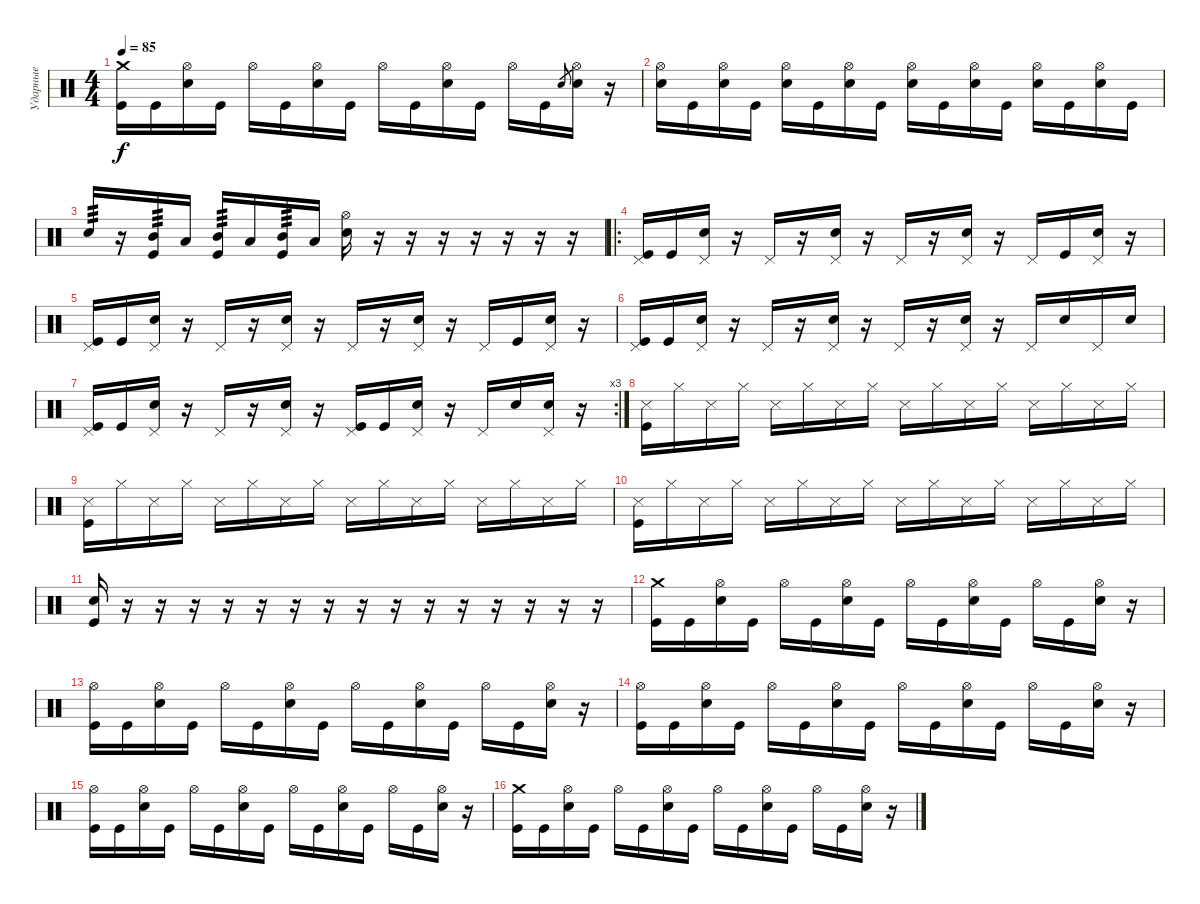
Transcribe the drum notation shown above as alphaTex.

\track ("Ударные" "Ударные") {instrument percussion}
\staff {score}
\articulation defaults
\ts (4 4)
\tempo 85
\clef neutral
\ks c
("Crash medium (hit)" "Kick (hit)").16{dy f} "Kick (hit)".16 ("Hi-Hat (open)" "Electric Snare (hit)").16 "Kick (hit)".16 "Hi-Hat (open)".16 "Kick (hit)".16 ("Hi-Hat (open)" "Electric Snare (hit)").16 "Kick (hit)".16 "Hi-Hat (open)".16 "Kick (hit)".16 ("Hi-Hat (open)" "Electric Snare (hit)").16 "Kick (hit)".16 "Hi-Hat (open)".16 "Kick (hit)".16 "Electric Snare (hit)".8{gr} ("Hi-Hat (open)" "Electric Snare (hit)").16 r.16 |
("Hi-Hat (open)" "Electric Snare (hit)").16 "Kick (hit)".16 ("Hi-Hat (open)" "Electric Snare (hit)").16 "Kick (hit)".16 ("Hi-Hat (open)" "Electric Snare (hit)").16 "Kick (hit)".16 ("Hi-Hat (open)" "Electric Snare (hit)").16 "Kick (hit)".16 ("Hi-Hat (open)" "Electric Snare (hit)").16 "Kick (hit)".16 ("Hi-Hat (open)" "Electric Snare (hit)").16 "Kick (hit)".16 ("Hi-Hat (open)" "Electric Snare (hit)").16 "Kick (hit)".16 ("Hi-Hat (open)" "Electric Snare (hit)").16 "Kick (hit)".16 |
"Electric Snare (hit)".16{tp 3} r.16 ("Kick (hit)" "Mid Tom (hit)").16{tp 3} "Low Tom (hit)".16 ("Kick (hit)" "Mid Tom (hit)").16{tp 3} "Low Tom (hit)".16 ("Kick (hit)" "Mid Tom (hit)").16{tp 3} "Low Tom (hit)".16 ("Hi-Hat (open)" "Electric Snare (hit)").16 r.16 r.16 r.16 r.16 r.16 r.16 r.16 |
\ro
("Pedal Hi-Hat (hit)" "Kick (hit)").16 "Kick (hit)".16 ("Pedal Hi-Hat (hit)" "Electric Snare (hit)").16 r.16 "Pedal Hi-Hat (hit)".16 r.16 ("Pedal Hi-Hat (hit)" "Electric Snare (hit)").16 r.16 "Pedal Hi-Hat (hit)".16 r.16 ("Pedal Hi-Hat (hit)" "Electric Snare (hit)").16 r.16 "Pedal Hi-Hat (hit)".16 "Kick (hit)".16 ("Pedal Hi-Hat (hit)" "Electric Snare (hit)").16 r.16 |
("Pedal Hi-Hat (hit)" "Kick (hit)").16 "Kick (hit)".16 ("Pedal Hi-Hat (hit)" "Electric Snare (hit)").16 r.16 "Pedal Hi-Hat (hit)".16 r.16 ("Pedal Hi-Hat (hit)" "Electric Snare (hit)").16 r.16 "Pedal Hi-Hat (hit)".16 r.16 ("Pedal Hi-Hat (hit)" "Electric Snare (hit)").16 r.16 "Pedal Hi-Hat (hit)".16 "Kick (hit)".16 ("Pedal Hi-Hat (hit)" "Electric Snare (hit)").16 r.16 |
("Pedal Hi-Hat (hit)" "Kick (hit)").16 "Kick (hit)".16 ("Pedal Hi-Hat (hit)" "Electric Snare (hit)").16 r.16 "Pedal Hi-Hat (hit)".16 r.16 ("Pedal Hi-Hat (hit)" "Electric Snare (hit)").16 r.16 "Pedal Hi-Hat (hit)".16 r.16 ("Pedal Hi-Hat (hit)" "Electric Snare (hit)").16 r.16 "Pedal Hi-Hat (hit)".16 "Electric Snare (hit)".16 "Pedal Hi-Hat (hit)".16 "Electric Snare (hit)".16 |
\rc 3
("Pedal Hi-Hat (hit)" "Kick (hit)").16 "Kick (hit)".16 ("Pedal Hi-Hat (hit)" "Electric Snare (hit)").16 r.16 "Pedal Hi-Hat (hit)".16 r.16 ("Pedal Hi-Hat (hit)" "Electric Snare (hit)").16 r.16 ("Pedal Hi-Hat (hit)" "Kick (hit)").16 "Kick (hit)".16 ("Pedal Hi-Hat (hit)" "Electric Snare (hit)").16 r.16 "Pedal Hi-Hat (hit)".16 "Electric Snare (hit)".16 ("Pedal Hi-Hat (hit)" "Electric Snare (hit)").16 r.16 |
("Snare (side stick) 3" "Kick (hit)").16 "Hi-Hat (closed)".16 "Snare (side stick) 3".16 "Hi-Hat (closed)".16 "Snare (side stick) 3".16 "Hi-Hat (closed)".16 "Snare (side stick) 3".16 "Hi-Hat (closed)".16 "Snare (side stick) 3".16 "Hi-Hat (closed)".16 "Snare (side stick) 3".16 "Hi-Hat (closed)".16 "Snare (side stick) 3".16 "Hi-Hat (closed)".16 "Snare (side stick) 3".16 "Hi-Hat (closed)".16 |
("Snare (side stick) 3" "Kick (hit)").16 "Hi-Hat (closed)".16 "Snare (side stick) 3".16 "Hi-Hat (closed)".16 "Snare (side stick) 3".16 "Hi-Hat (closed)".16 "Snare (side stick) 3".16 "Hi-Hat (closed)".16 "Snare (side stick) 3".16 "Hi-Hat (closed)".16 "Snare (side stick) 3".16 "Hi-Hat (closed)".16 "Snare (side stick) 3".16 "Hi-Hat (closed)".16 "Snare (side stick) 3".16 "Hi-Hat (closed)".16 |
("Snare (side stick) 3" "Kick (hit)").16 "Hi-Hat (closed)".16 "Snare (side stick) 3".16 "Hi-Hat (closed)".16 "Snare (side stick) 3".16 "Hi-Hat (closed)".16 "Snare (side stick) 3".16 "Hi-Hat (closed)".16 "Snare (side stick) 3".16 "Hi-Hat (closed)".16 "Snare (side stick) 3".16 "Hi-Hat (closed)".16 "Snare (side stick) 3".16 "Hi-Hat (closed)".16 "Snare (side stick) 3".16 "Hi-Hat (closed)".16 |
("Electric Snare (hit)" "Kick (hit)").16 r.16 r.16 r.16 r.16 r.16 r.16 r.16 r.16 r.16 r.16 r.16 r.16 r.16 r.16 r.16 |
("Crash medium (hit)" "Kick (hit)").16 "Kick (hit)".16 ("Hi-Hat (open)" "Electric Snare (hit)").16 "Kick (hit)".16 "Hi-Hat (open)".16 "Kick (hit)".16 ("Hi-Hat (open)" "Electric Snare (hit)").16 "Kick (hit)".16 "Hi-Hat (open)".16 "Kick (hit)".16 ("Hi-Hat (open)" "Electric Snare (hit)").16 "Kick (hit)".16 "Hi-Hat (open)".16 "Kick (hit)".16 ("Hi-Hat (open)" "Electric Snare (hit)").16 r.16 |
("Hi-Hat (open)" "Kick (hit)").16 "Kick (hit)".16 ("Hi-Hat (open)" "Electric Snare (hit)").16 "Kick (hit)".16 "Hi-Hat (open)".16 "Kick (hit)".16 ("Hi-Hat (open)" "Electric Snare (hit)").16 "Kick (hit)".16 "Hi-Hat (open)".16 "Kick (hit)".16 ("Hi-Hat (open)" "Electric Snare (hit)").16 "Kick (hit)".16 "Hi-Hat (open)".16 "Kick (hit)".16 ("Hi-Hat (open)" "Electric Snare (hit)").16 r.16 |
("Hi-Hat (open)" "Kick (hit)").16 "Kick (hit)".16 ("Hi-Hat (open)" "Electric Snare (hit)").16 "Kick (hit)".16 "Hi-Hat (open)".16 "Kick (hit)".16 ("Hi-Hat (open)" "Electric Snare (hit)").16 "Kick (hit)".16 "Hi-Hat (open)".16 "Kick (hit)".16 ("Hi-Hat (open)" "Electric Snare (hit)").16 "Kick (hit)".16 "Hi-Hat (open)".16 "Kick (hit)".16 ("Hi-Hat (open)" "Electric Snare (hit)").16 r.16 |
("Hi-Hat (open)" "Kick (hit)").16 "Kick (hit)".16 ("Hi-Hat (open)" "Electric Snare (hit)").16 "Kick (hit)".16 "Hi-Hat (open)".16 "Kick (hit)".16 ("Hi-Hat (open)" "Electric Snare (hit)").16 "Kick (hit)".16 "Hi-Hat (open)".16 "Kick (hit)".16 ("Hi-Hat (open)" "Electric Snare (hit)").16 "Kick (hit)".16 "Hi-Hat (open)".16 "Kick (hit)".16 ("Hi-Hat (open)" "Electric Snare (hit)").16 r.16 |
("Crash medium (hit)" "Kick (hit)").16 "Kick (hit)".16 ("Hi-Hat (open)" "Electric Snare (hit)").16 "Kick (hit)".16 "Hi-Hat (open)".16 "Kick (hit)".16 ("Hi-Hat (open)" "Electric Snare (hit)").16 "Kick (hit)".16 "Hi-Hat (open)".16 "Kick (hit)".16 ("Hi-Hat (open)" "Electric Snare (hit)").16 "Kick (hit)".16 "Hi-Hat (open)".16 "Kick (hit)".16 ("Hi-Hat (open)" "Electric Snare (hit)").16 r.16
